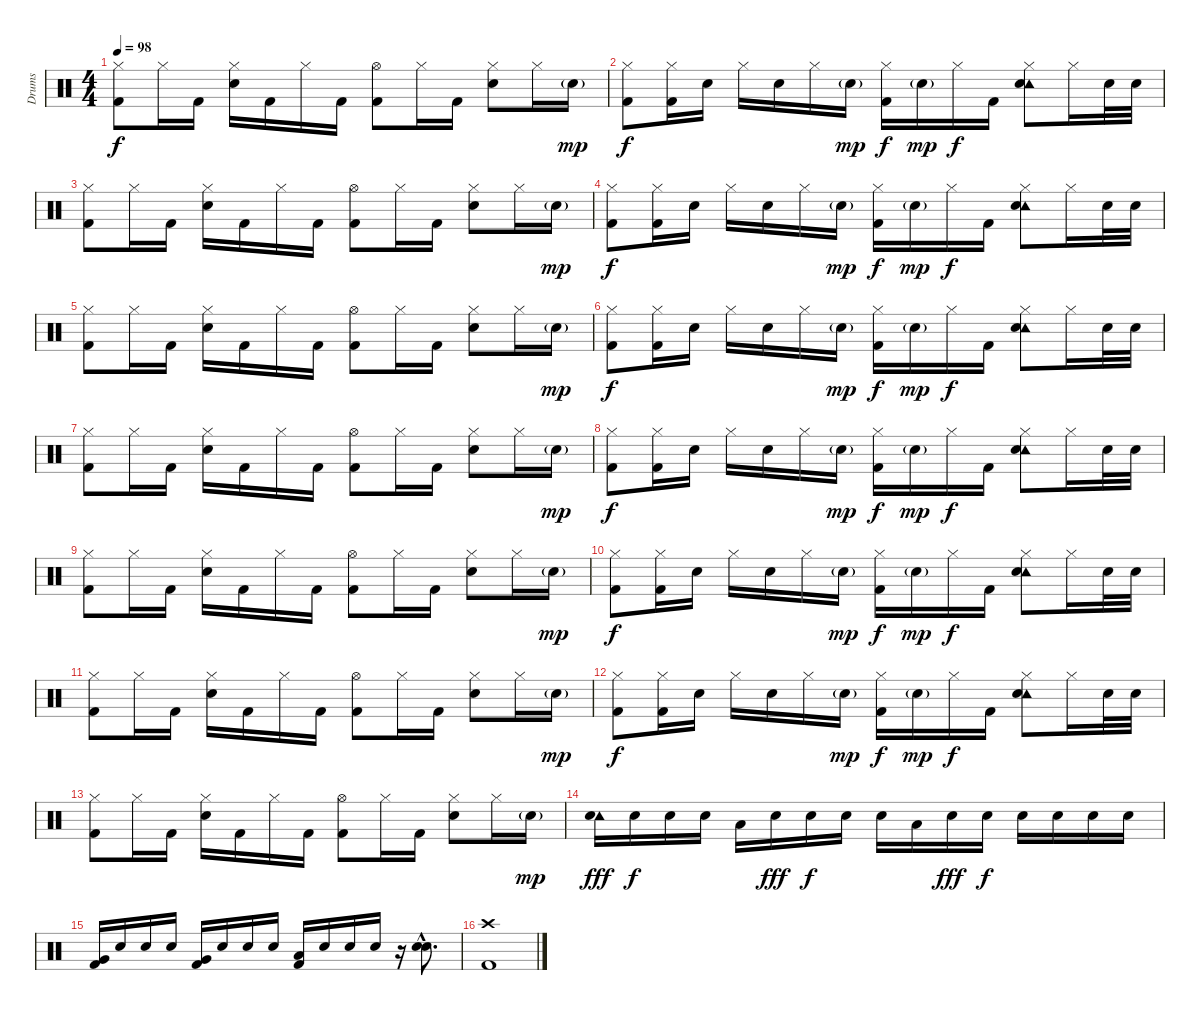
\track ("Drums" "Drums") {instrument percussion}
\staff {score}
\articulation defaults
\ts (4 4)
\tempo 98
\clef neutral
\ks c
("Hi-Hat (closed)" "Kick (hit) 2").8{dy f} "Hi-Hat (closed)".16 "Kick (hit) 2".16 ("Hi-Hat (closed)" "Snare (hit) 2").16 "Kick (hit) 2".16 "Hi-Hat (closed)".16 "Kick (hit) 2".16 ("Hi-Hat (open)" "Kick (hit) 2").8 "Hi-Hat (closed)".16 "Kick (hit) 2".16 ("Hi-Hat (closed)" "Snare (hit) 2").8 "Hi-Hat (closed)".16 "Snare (hit) 2"{g}.16{dy mp} |
("Hi-Hat (closed)" "Kick (hit) 2").8{dy f} ("Hi-Hat (closed)" "Kick (hit) 2").16 "Snare (hit) 2".16 "Hi-Hat (closed)".16 "Snare (hit) 2".16 "Hi-Hat (closed)".16 "Snare (hit) 2"{g}.16{dy mp} ("Hi-Hat (closed)" "Kick (hit) 2").16{dy f} "Snare (hit) 2"{g}.16{dy mp} "Hi-Hat (closed)".16{dy f} "Kick (hit) 2".16 ("Hi-Hat (closed)" "Tambourine (hit)" "Snare (hit) 2").8 "Hi-Hat (closed)".16 "Snare (hit) 2".32 "Snare (hit) 2".32 |
("Hi-Hat (closed)" "Kick (hit) 2").8 "Hi-Hat (closed)".16 "Kick (hit) 2".16 ("Hi-Hat (closed)" "Snare (hit) 2").16 "Kick (hit) 2".16 "Hi-Hat (closed)".16 "Kick (hit) 2".16 ("Hi-Hat (open)" "Kick (hit) 2").8 "Hi-Hat (closed)".16 "Kick (hit) 2".16 ("Hi-Hat (closed)" "Snare (hit) 2").8 "Hi-Hat (closed)".16 "Snare (hit) 2"{g}.16{dy mp} |
("Hi-Hat (closed)" "Kick (hit) 2").8{dy f} ("Hi-Hat (closed)" "Kick (hit) 2").16 "Snare (hit) 2".16 "Hi-Hat (closed)".16 "Snare (hit) 2".16 "Hi-Hat (closed)".16 "Snare (hit) 2"{g}.16{dy mp} ("Hi-Hat (closed)" "Kick (hit) 2").16{dy f} "Snare (hit) 2"{g}.16{dy mp} "Hi-Hat (closed)".16{dy f} "Kick (hit) 2".16 ("Hi-Hat (closed)" "Tambourine (hit)" "Snare (hit) 2").8 "Hi-Hat (closed)".16 "Snare (hit) 2".32 "Snare (hit) 2".32 |
("Hi-Hat (closed)" "Kick (hit) 2").8 "Hi-Hat (closed)".16 "Kick (hit) 2".16 ("Hi-Hat (closed)" "Snare (hit) 2").16 "Kick (hit) 2".16 "Hi-Hat (closed)".16 "Kick (hit) 2".16 ("Hi-Hat (open)" "Kick (hit) 2").8 "Hi-Hat (closed)".16 "Kick (hit) 2".16 ("Hi-Hat (closed)" "Snare (hit) 2").8 "Hi-Hat (closed)".16 "Snare (hit) 2"{g}.16{dy mp} |
("Hi-Hat (closed)" "Kick (hit) 2").8{dy f} ("Hi-Hat (closed)" "Kick (hit) 2").16 "Snare (hit) 2".16 "Hi-Hat (closed)".16 "Snare (hit) 2".16 "Hi-Hat (closed)".16 "Snare (hit) 2"{g}.16{dy mp} ("Hi-Hat (closed)" "Kick (hit) 2").16{dy f} "Snare (hit) 2"{g}.16{dy mp} "Hi-Hat (closed)".16{dy f} "Kick (hit) 2".16 ("Hi-Hat (closed)" "Tambourine (hit)" "Snare (hit) 2").8 "Hi-Hat (closed)".16 "Snare (hit) 2".32 "Snare (hit) 2".32 |
("Hi-Hat (closed)" "Kick (hit) 2").8 "Hi-Hat (closed)".16 "Kick (hit) 2".16 ("Hi-Hat (closed)" "Snare (hit) 2").16 "Kick (hit) 2".16 "Hi-Hat (closed)".16 "Kick (hit) 2".16 ("Hi-Hat (open)" "Kick (hit) 2").8 "Hi-Hat (closed)".16 "Kick (hit) 2".16 ("Hi-Hat (closed)" "Snare (hit) 2").8 "Hi-Hat (closed)".16 "Snare (hit) 2"{g}.16{dy mp} |
("Hi-Hat (closed)" "Kick (hit) 2").8{dy f} ("Hi-Hat (closed)" "Kick (hit) 2").16 "Snare (hit) 2".16 "Hi-Hat (closed)".16 "Snare (hit) 2".16 "Hi-Hat (closed)".16 "Snare (hit) 2"{g}.16{dy mp} ("Hi-Hat (closed)" "Kick (hit) 2").16{dy f} "Snare (hit) 2"{g}.16{dy mp} "Hi-Hat (closed)".16{dy f} "Kick (hit) 2".16 ("Hi-Hat (closed)" "Tambourine (hit)" "Snare (hit) 2").8 "Hi-Hat (closed)".16 "Snare (hit) 2".32 "Snare (hit) 2".32 |
("Hi-Hat (closed)" "Kick (hit) 2").8 "Hi-Hat (closed)".16 "Kick (hit) 2".16 ("Hi-Hat (closed)" "Snare (hit) 2").16 "Kick (hit) 2".16 "Hi-Hat (closed)".16 "Kick (hit) 2".16 ("Hi-Hat (open)" "Kick (hit) 2").8 "Hi-Hat (closed)".16 "Kick (hit) 2".16 ("Hi-Hat (closed)" "Snare (hit) 2").8 "Hi-Hat (closed)".16 "Snare (hit) 2"{g}.16{dy mp} |
("Hi-Hat (closed)" "Kick (hit) 2").8{dy f} ("Hi-Hat (closed)" "Kick (hit) 2").16 "Snare (hit) 2".16 "Hi-Hat (closed)".16 "Snare (hit) 2".16 "Hi-Hat (closed)".16 "Snare (hit) 2"{g}.16{dy mp} ("Hi-Hat (closed)" "Kick (hit) 2").16{dy f} "Snare (hit) 2"{g}.16{dy mp} "Hi-Hat (closed)".16{dy f} "Kick (hit) 2".16 ("Hi-Hat (closed)" "Tambourine (hit)" "Snare (hit) 2").8 "Hi-Hat (closed)".16 "Snare (hit) 2".32 "Snare (hit) 2".32 |
("Hi-Hat (closed)" "Kick (hit) 2").8 "Hi-Hat (closed)".16 "Kick (hit) 2".16 ("Hi-Hat (closed)" "Snare (hit) 2").16 "Kick (hit) 2".16 "Hi-Hat (closed)".16 "Kick (hit) 2".16 ("Hi-Hat (open)" "Kick (hit) 2").8 "Hi-Hat (closed)".16 "Kick (hit) 2".16 ("Hi-Hat (closed)" "Snare (hit) 2").8 "Hi-Hat (closed)".16 "Snare (hit) 2"{g}.16{dy mp} |
("Hi-Hat (closed)" "Kick (hit) 2").8{dy f} ("Hi-Hat (closed)" "Kick (hit) 2").16 "Snare (hit) 2".16 "Hi-Hat (closed)".16 "Snare (hit) 2".16 "Hi-Hat (closed)".16 "Snare (hit) 2"{g}.16{dy mp} ("Hi-Hat (closed)" "Kick (hit) 2").16{dy f} "Snare (hit) 2"{g}.16{dy mp} "Hi-Hat (closed)".16{dy f} "Kick (hit) 2".16 ("Hi-Hat (closed)" "Tambourine (hit)" "Snare (hit) 2").8 "Hi-Hat (closed)".16 "Snare (hit) 2".32 "Snare (hit) 2".32 |
("Hi-Hat (closed)" "Kick (hit) 2").8 "Hi-Hat (closed)".16 "Kick (hit) 2".16 ("Hi-Hat (closed)" "Snare (hit) 2").16 "Kick (hit) 2".16 "Hi-Hat (closed)".16 "Kick (hit) 2".16 ("Hi-Hat (open)" "Kick (hit) 2").8 "Hi-Hat (closed)".16 "Kick (hit) 2".16 ("Hi-Hat (closed)" "Snare (hit) 2").8 "Hi-Hat (closed)".16 "Snare (hit) 2"{g}.16{dy mp} |
("Tambourine (hit)" "Snare (hit) 2").16{dy fff} "Snare (hit) 2".16{dy f} "Snare (hit) 2".16 "Snare (hit) 2".16 "Low Tom (hit)".16 "Snare (hit) 2".16{dy fff} "Snare (hit) 2".16{dy f} "Snare (hit) 2".16 "Snare (hit) 2".16 "Low Tom (hit)".16 "Snare (hit) 2".16{dy fff} "Snare (hit) 2".16{dy f} "Snare (hit) 2".16 "Snare (hit) 2".16 "Snare (hit) 2".16 "Snare (hit) 2".16 |
("Very Low Tom (hit)" "Kick (hit) 2").16 "Snare (hit) 2".16 "Snare (hit) 2".16 "Snare (hit) 2".16 ("Very Low Tom (hit)" "Kick (hit) 2").16 "Snare (hit) 2".16 "Snare (hit) 2".16 "Snare (hit) 2".16 ("Low Floor Tom (hit)" "Kick (hit) 2").16 "Snare (hit) 2".16 "Snare (hit) 2".16 "Snare (hit) 2".16 r.16 ("Snare (hit) 2"{hac} "Snare (hit) 2"{hac}).8{d} |
("Crash high (hit)" "Kick (hit) 2").1
